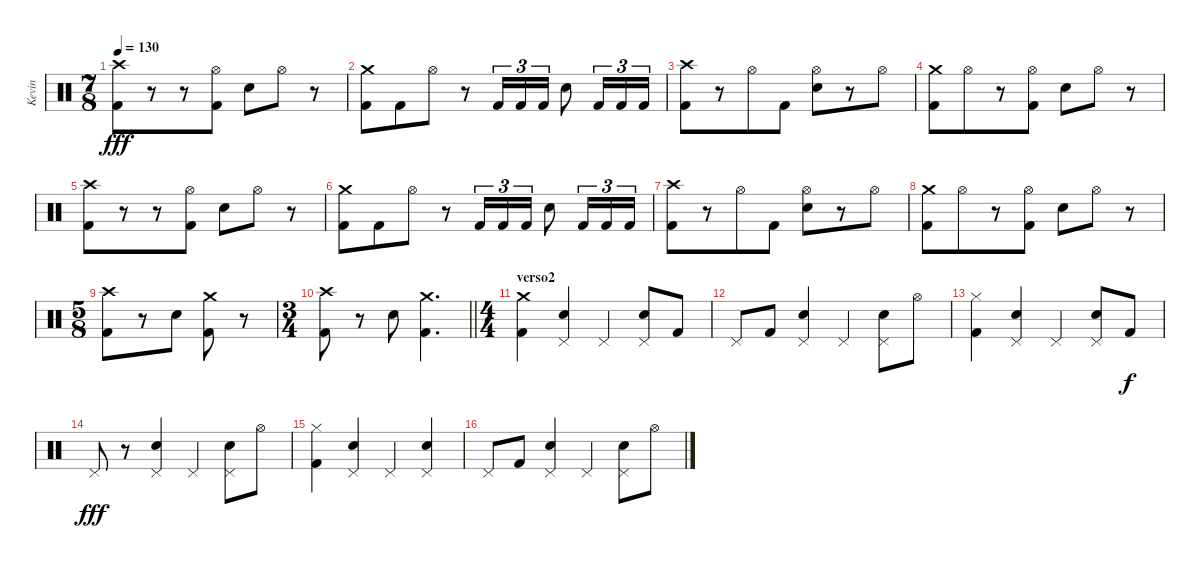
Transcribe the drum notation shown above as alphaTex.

\track ("Kevin" "Kevin") {instrument percussion}
\staff {score}
\articulation defaults
\ts (7 8)
\tempo 130
\clef neutral
\ks c
("Crash high (hit)" "Kick (hit) 2").8{dy fff} r.8 r.8 ("Hi-Hat (open)" "Kick (hit) 2").8 "Snare (hit) 2".8 "Hi-Hat (open)".8 r.8 |
("Crash medium (hit)" "Kick (hit) 2").8 "Kick (hit) 2".8 "Hi-Hat (open)".8 r.8 "Kick (hit) 2".16{tu (3 2)} "Kick (hit) 2".16{tu (3 2)} "Kick (hit) 2".16{tu (3 2)} "Snare (hit) 2".8 "Kick (hit) 2".16{tu (3 2)} "Kick (hit) 2".16{tu (3 2)} "Kick (hit) 2".16{tu (3 2)} |
("Crash high (hit)" "Kick (hit) 2").8 r.8 "Hi-Hat (open)".8 "Kick (hit) 2".8 ("Hi-Hat (open)" "Snare (hit) 2").8 r.8 "Hi-Hat (open)".8 |
("Crash medium (hit)" "Kick (hit) 2").8 "Hi-Hat (open)".8 r.8 ("Hi-Hat (open)" "Kick (hit) 2").8 "Snare (hit) 2".8 "Hi-Hat (open)".8 r.8 |
("Crash high (hit)" "Kick (hit) 2").8 r.8 r.8 ("Hi-Hat (open)" "Kick (hit) 2").8 "Snare (hit) 2".8 "Hi-Hat (open)".8 r.8 |
("Crash medium (hit)" "Kick (hit) 2").8 "Kick (hit) 2".8 "Hi-Hat (open)".8 r.8 "Kick (hit) 2".16{tu (3 2)} "Kick (hit) 2".16{tu (3 2)} "Kick (hit) 2".16{tu (3 2)} "Snare (hit) 2".8 "Kick (hit) 2".16{tu (3 2)} "Kick (hit) 2".16{tu (3 2)} "Kick (hit) 2".16{tu (3 2)} |
("Crash high (hit)" "Kick (hit) 2").8 r.8 "Hi-Hat (open)".8 "Kick (hit) 2".8 ("Hi-Hat (open)" "Snare (hit) 2").8 r.8 "Hi-Hat (open)".8 |
("Crash medium (hit)" "Kick (hit) 2").8 "Hi-Hat (open)".8 r.8 ("Hi-Hat (open)" "Kick (hit) 2").8 "Snare (hit) 2".8 "Hi-Hat (open)".8 r.8 |
\ts (5 8)
("Crash high (hit)" "Kick (hit) 2").8 r.8 "Snare (hit) 2".8 ("Crash medium (hit)" "Kick (hit) 2").8 r.8 |
\ts (3 4)
\barLineRight lightlight
("Crash high (hit)" "Kick (hit) 2").8 r.8 "Snare (hit) 2".8 ("Crash medium (hit)" "Kick (hit) 2").4{d} |
\ts (4 4)
\section ("" "verso2")
("Crash medium (hit)" "Kick (hit) 2").4 ("Pedal Hi-Hat (hit)" "Electric Snare (hit)").4 "Pedal Hi-Hat (hit)".4 ("Pedal Hi-Hat (hit)" "Electric Snare (hit)").8 "Kick (hit) 2".8 |
"Pedal Hi-Hat (hit)".8 "Kick (hit) 2".8 ("Pedal Hi-Hat (hit)" "Electric Snare (hit)").4 "Pedal Hi-Hat (hit)".4 ("Pedal Hi-Hat (hit)" "Electric Snare (hit)").8 "Hi-Hat (open)".8 |
("Hi-Hat (closed)" "Kick (hit) 2").4 ("Pedal Hi-Hat (hit)" "Electric Snare (hit)").4 "Pedal Hi-Hat (hit)".4 ("Pedal Hi-Hat (hit)" "Electric Snare (hit)").8 "Kick (hit) 2".8{dy f} |
"Pedal Hi-Hat (hit)".8{dy fff} r.8 ("Pedal Hi-Hat (hit)" "Electric Snare (hit)").4 "Pedal Hi-Hat (hit)".4 ("Pedal Hi-Hat (hit)" "Electric Snare (hit)").8 "Hi-Hat (open)".8 |
("Hi-Hat (closed)" "Kick (hit) 2").4 ("Pedal Hi-Hat (hit)" "Electric Snare (hit)").4 "Pedal Hi-Hat (hit)".4 ("Pedal Hi-Hat (hit)" "Electric Snare (hit)").4 |
"Pedal Hi-Hat (hit)".8 "Kick (hit) 2".8 ("Pedal Hi-Hat (hit)" "Electric Snare (hit)").4 "Pedal Hi-Hat (hit)".4 ("Pedal Hi-Hat (hit)" "Electric Snare (hit)").8 "Hi-Hat (open)".8
